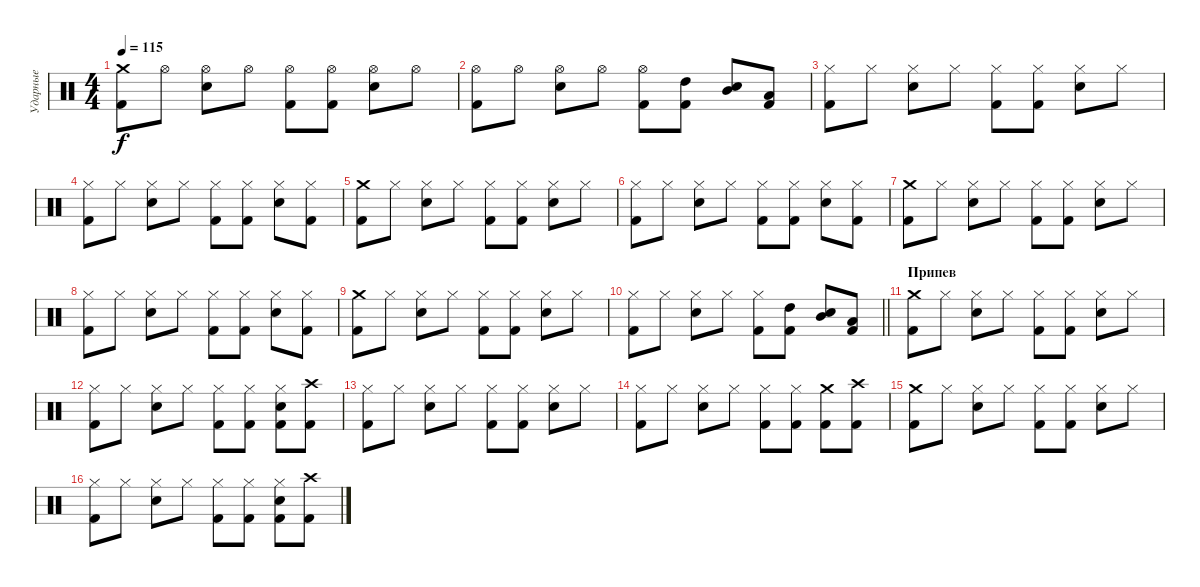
\track ("Ударные" "Ударные") {instrument percussion}
\staff {score}
\articulation defaults
\ts (4 4)
\tempo 115
\clef neutral
\ks c
("Kick (hit) 2" "Crash medium (hit)").8{dy f} "Hi-Hat (open)".8 ("Snare (hit) 2" "Hi-Hat (open)").8 "Hi-Hat (open)".8 ("Kick (hit) 2" "Hi-Hat (open)").8 ("Kick (hit) 2" "Hi-Hat (open)").8 ("Snare (hit) 2" "Hi-Hat (open)").8 "Hi-Hat (open)".8 |
("Kick (hit) 2" "Hi-Hat (open)").8 "Hi-Hat (open)".8 ("Snare (hit) 2" "Hi-Hat (open)").8 "Hi-Hat (open)".8 ("Kick (hit) 2" "Hi-Hat (open)").8 ("Kick (hit) 2" "High Tom (hit)").8 ("Snare (hit) 2" "Mid Tom (hit)").8 ("Kick (hit) 2" "Low Tom (hit)").8 |
("Kick (hit) 2" "Hi-Hat (closed)").8 "Hi-Hat (closed)".8 ("Snare (hit) 2" "Hi-Hat (closed)").8 "Hi-Hat (closed)".8 ("Kick (hit) 2" "Hi-Hat (closed)").8 ("Kick (hit) 2" "Hi-Hat (closed)").8 ("Snare (hit) 2" "Hi-Hat (closed)").8 "Hi-Hat (closed)".8 |
("Kick (hit) 2" "Hi-Hat (closed)").8 "Hi-Hat (closed)".8 ("Snare (hit) 2" "Hi-Hat (closed)").8 "Hi-Hat (closed)".8 ("Kick (hit) 2" "Hi-Hat (closed)").8 ("Kick (hit) 2" "Hi-Hat (closed)").8 ("Snare (hit) 2" "Hi-Hat (closed)").8 ("Kick (hit) 2" "Hi-Hat (closed)").8 |
("Kick (hit) 2" "Crash medium (hit)").8 "Hi-Hat (closed)".8 ("Snare (hit) 2" "Hi-Hat (closed)").8 "Hi-Hat (closed)".8 ("Kick (hit) 2" "Hi-Hat (closed)").8 ("Kick (hit) 2" "Hi-Hat (closed)").8 ("Snare (hit) 2" "Hi-Hat (closed)").8 "Hi-Hat (closed)".8 |
("Kick (hit) 2" "Hi-Hat (closed)").8 "Hi-Hat (closed)".8 ("Snare (hit) 2" "Hi-Hat (closed)").8 "Hi-Hat (closed)".8 ("Kick (hit) 2" "Hi-Hat (closed)").8 ("Kick (hit) 2" "Hi-Hat (closed)").8 ("Snare (hit) 2" "Hi-Hat (closed)").8 ("Kick (hit) 2" "Hi-Hat (closed)").8 |
("Kick (hit) 2" "Crash medium (hit)").8 "Hi-Hat (closed)".8 ("Snare (hit) 2" "Hi-Hat (closed)").8 "Hi-Hat (closed)".8 ("Kick (hit) 2" "Hi-Hat (closed)").8 ("Kick (hit) 2" "Hi-Hat (closed)").8 ("Snare (hit) 2" "Hi-Hat (closed)").8 "Hi-Hat (closed)".8 |
("Kick (hit) 2" "Hi-Hat (closed)").8 "Hi-Hat (closed)".8 ("Snare (hit) 2" "Hi-Hat (closed)").8 "Hi-Hat (closed)".8 ("Kick (hit) 2" "Hi-Hat (closed)").8 ("Kick (hit) 2" "Hi-Hat (closed)").8 ("Snare (hit) 2" "Hi-Hat (closed)").8 ("Kick (hit) 2" "Hi-Hat (closed)").8 |
("Kick (hit) 2" "Crash medium (hit)").8 "Hi-Hat (closed)".8 ("Snare (hit) 2" "Hi-Hat (closed)").8 "Hi-Hat (closed)".8 ("Kick (hit) 2" "Hi-Hat (closed)").8 ("Kick (hit) 2" "Hi-Hat (closed)").8 ("Snare (hit) 2" "Hi-Hat (closed)").8 "Hi-Hat (closed)".8 |
\barLineRight lightlight
("Kick (hit) 2" "Hi-Hat (closed)").8 "Hi-Hat (closed)".8 ("Snare (hit) 2" "Hi-Hat (closed)").8 "Hi-Hat (closed)".8 ("Kick (hit) 2" "Hi-Hat (closed)").8 ("Kick (hit) 2" "High Tom (hit)").8 ("Snare (hit) 2" "Mid Tom (hit)").8 ("Kick (hit) 2" "Low Tom (hit)").8 |
\section ("" "Припев")
("Kick (hit) 2" "Crash medium (hit)").8 "Hi-Hat (closed)".8 ("Snare (hit) 2" "Hi-Hat (closed)").8 "Hi-Hat (closed)".8 ("Kick (hit) 2" "Hi-Hat (closed)").8 ("Kick (hit) 2" "Hi-Hat (closed)").8 ("Snare (hit) 2" "Hi-Hat (closed)").8 "Hi-Hat (closed)".8 |
("Kick (hit) 2" "Hi-Hat (closed)").8 "Hi-Hat (closed)".8 ("Snare (hit) 2" "Hi-Hat (closed)").8 "Hi-Hat (closed)".8 ("Kick (hit) 2" "Hi-Hat (closed)").8 ("Kick (hit) 2" "Hi-Hat (closed)").8 ("Kick (hit) 2" "Snare (hit) 2" "Hi-Hat (closed)").8 ("Kick (hit) 2" "Crash high (hit)").8 |
("Kick (hit) 2" "Hi-Hat (closed)").8 "Hi-Hat (closed)".8 ("Snare (hit) 2" "Hi-Hat (closed)").8 "Hi-Hat (closed)".8 ("Kick (hit) 2" "Hi-Hat (closed)").8 ("Kick (hit) 2" "Hi-Hat (closed)").8 ("Snare (hit) 2" "Hi-Hat (closed)").8 "Hi-Hat (closed)".8 |
("Kick (hit) 2" "Hi-Hat (closed)").8 "Hi-Hat (closed)".8 ("Snare (hit) 2" "Hi-Hat (closed)").8 "Hi-Hat (closed)".8 ("Kick (hit) 2" "Hi-Hat (closed)").8 ("Kick (hit) 2" "Hi-Hat (closed)").8 ("Kick (hit) 2" "Crash medium (hit)").8 ("Kick (hit) 2" "Crash high (hit)").8 |
("Kick (hit) 2" "Crash medium (hit)").8 "Hi-Hat (closed)".8 ("Snare (hit) 2" "Hi-Hat (closed)").8 "Hi-Hat (closed)".8 ("Kick (hit) 2" "Hi-Hat (closed)").8 ("Kick (hit) 2" "Hi-Hat (closed)").8 ("Snare (hit) 2" "Hi-Hat (closed)").8 "Hi-Hat (closed)".8 |
("Kick (hit) 2" "Hi-Hat (closed)").8 "Hi-Hat (closed)".8 ("Snare (hit) 2" "Hi-Hat (closed)").8 "Hi-Hat (closed)".8 ("Kick (hit) 2" "Hi-Hat (closed)").8 ("Kick (hit) 2" "Hi-Hat (closed)").8 ("Kick (hit) 2" "Snare (hit) 2" "Hi-Hat (closed)").8 ("Kick (hit) 2" "Crash high (hit)").8
